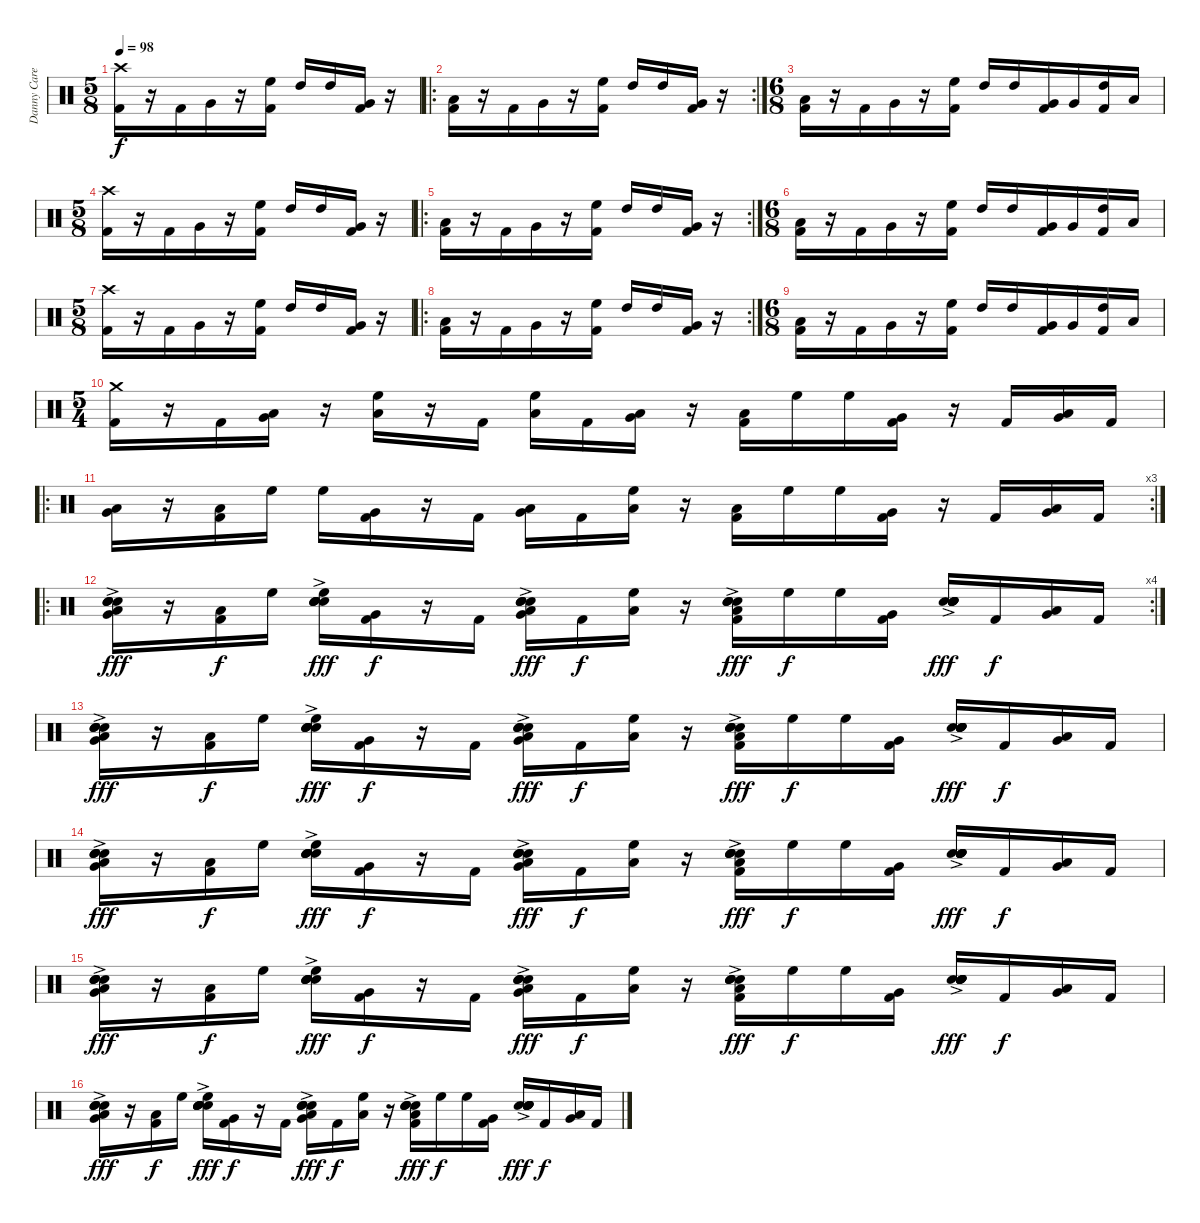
\track ("Danny Carey" "Danny Care") {instrument percussion}
\staff {score}
\articulation defaults
\ts (5 8)
\tempo 98
\clef neutral
\ks c
("Crash high (hit)" "Kick (hit) 2").16{dy f} r.16 "Kick (hit) 2".16 "Very Low Tom (hit)".16 r.16 ("High Floor Tom (hit)" "Kick (hit) 2").16 "High Tom (hit)".16 "High Tom (hit)".16 ("Very Low Tom (hit)" "Kick (hit) 2").16 r.16 |
\ro
\rc 2
("Low Floor Tom (hit)" "Kick (hit) 2").16 r.16 "Kick (hit) 2".16 "Very Low Tom (hit)".16 r.16 ("High Floor Tom (hit)" "Kick (hit) 2").16 "High Tom (hit)".16 "High Tom (hit)".16 ("Very Low Tom (hit)" "Kick (hit) 2").16 r.16 |
\ts (6 8)
("Low Floor Tom (hit)" "Kick (hit) 2").16 r.16 "Kick (hit) 2".16 "Very Low Tom (hit)".16 r.16 ("High Floor Tom (hit)" "Kick (hit) 2").16 "High Tom (hit)".16 "High Tom (hit)".16 ("Very Low Tom (hit)" "Kick (hit) 2").16 "Very Low Tom (hit)".16 ("High Tom (hit)" "Kick (hit) 2").16 "Low Floor Tom (hit)".16 |
\ts (5 8)
("Crash high (hit)" "Kick (hit) 2").16 r.16 "Kick (hit) 2".16 "Very Low Tom (hit)".16 r.16 ("High Floor Tom (hit)" "Kick (hit) 2").16 "High Tom (hit)".16 "High Tom (hit)".16 ("Very Low Tom (hit)" "Kick (hit) 2").16 r.16 |
\ro
\rc 2
("Low Floor Tom (hit)" "Kick (hit) 2").16 r.16 "Kick (hit) 2".16 "Very Low Tom (hit)".16 r.16 ("High Floor Tom (hit)" "Kick (hit) 2").16 "High Tom (hit)".16 "High Tom (hit)".16 ("Very Low Tom (hit)" "Kick (hit) 2").16 r.16 |
\ts (6 8)
("Low Floor Tom (hit)" "Kick (hit) 2").16 r.16 "Kick (hit) 2".16 "Very Low Tom (hit)".16 r.16 ("High Floor Tom (hit)" "Kick (hit) 2").16 "High Tom (hit)".16 "High Tom (hit)".16 ("Very Low Tom (hit)" "Kick (hit) 2").16 "Very Low Tom (hit)".16 ("High Tom (hit)" "Kick (hit) 2").16 "Low Floor Tom (hit)".16 |
\ts (5 8)
("Crash high (hit)" "Kick (hit) 2").16 r.16 "Kick (hit) 2".16 "Very Low Tom (hit)".16 r.16 ("High Floor Tom (hit)" "Kick (hit) 2").16 "High Tom (hit)".16 "High Tom (hit)".16 ("Very Low Tom (hit)" "Kick (hit) 2").16 r.16 |
\ro
\rc 2
("Low Floor Tom (hit)" "Kick (hit) 2").16 r.16 "Kick (hit) 2".16 "Very Low Tom (hit)".16 r.16 ("High Floor Tom (hit)" "Kick (hit) 2").16 "High Tom (hit)".16 "High Tom (hit)".16 ("Very Low Tom (hit)" "Kick (hit) 2").16 r.16 |
\ts (6 8)
("Low Floor Tom (hit)" "Kick (hit) 2").16 r.16 "Kick (hit) 2".16 "Very Low Tom (hit)".16 r.16 ("High Floor Tom (hit)" "Kick (hit) 2").16 "High Tom (hit)".16 "High Tom (hit)".16 ("Very Low Tom (hit)" "Kick (hit) 2").16 "Very Low Tom (hit)".16 ("High Tom (hit)" "Kick (hit) 2").16 "Low Floor Tom (hit)".16 |
\ts (5 4)
("Crash medium (hit)" "Kick (hit) 2").16 r.16 "Kick (hit) 2".16 ("Very Low Tom (hit)" "Low Floor Tom (hit)").16 r.16 ("High Floor Tom (hit)" "Low Floor Tom (hit)").16 r.16 "Kick (hit) 2".16 ("High Floor Tom (hit)" "Low Floor Tom (hit)").16 "Kick (hit) 2".16 ("Very Low Tom (hit)" "Low Floor Tom (hit)").16 r.16 ("Low Floor Tom (hit)" "Kick (hit) 2").16 "High Floor Tom (hit)".16 "High Floor Tom (hit)".16 ("Very Low Tom (hit)" "Kick (hit) 2").16 r.16 "Kick (hit) 2".16 ("Very Low Tom (hit)" "Low Floor Tom (hit)").16 "Kick (hit) 2".16 |
\ro
\rc 3
("Very Low Tom (hit)" "Low Floor Tom (hit)").16 r.16 ("Low Floor Tom (hit)" "Kick (hit) 2").16 "High Floor Tom (hit)".16 "High Floor Tom (hit)".16 ("Very Low Tom (hit)" "Kick (hit) 2").16 r.16 "Kick (hit) 2".16 ("Very Low Tom (hit)" "Low Floor Tom (hit)").16 "Kick (hit) 2".16 ("High Floor Tom (hit)" "Low Floor Tom (hit)").16 r.16 ("Low Floor Tom (hit)" "Kick (hit) 2").16 "High Floor Tom (hit)".16 "High Floor Tom (hit)".16 ("Very Low Tom (hit)" "Kick (hit) 2").16 r.16 "Kick (hit) 2".16 ("Very Low Tom (hit)" "Low Floor Tom (hit)").16 "Kick (hit) 2".16 |
\ro
\rc 4
("Hand Clap (hit)"{ac} "Very Low Tom (hit)" "Low Floor Tom (hit)" "Hand Clap (hit)" "Hand Clap (hit)" "Hand Clap (hit)").16{dy fff} r.16 ("Low Floor Tom (hit)" "Kick (hit) 2").16{dy f} "High Floor Tom (hit)".16 ("Hand Clap (hit)"{ac} "High Floor Tom (hit)" "Hand Clap (hit)" "Hand Clap (hit)" "Hand Clap (hit)" "Hand Clap (hit)").16{dy fff} ("Very Low Tom (hit)" "Kick (hit) 2").16{dy f} r.16 "Kick (hit) 2".16 ("Hand Clap (hit)"{ac} "Very Low Tom (hit)" "Low Floor Tom (hit)" "Hand Clap (hit)" "Hand Clap (hit)" "Hand Clap (hit)").16{dy fff} "Kick (hit) 2".16{dy f} ("High Floor Tom (hit)" "Low Floor Tom (hit)").16 r.16 ("Hand Clap (hit)"{ac} "Hand Clap (hit)" "Low Floor Tom (hit)" "Hand Clap (hit)" "Hand Clap (hit)" "Kick (hit) 2").16{dy fff} "High Floor Tom (hit)".16{dy f} "High Floor Tom (hit)".16 ("Very Low Tom (hit)" "Kick (hit) 2").16 ("Hand Clap (hit)"{ac} "Hand Clap (hit)" "Hand Clap (hit)" "Hand Clap (hit)" "Hand Clap (hit)" "Hand Clap (hit)").16{dy fff} "Kick (hit) 2".16{dy f} ("Very Low Tom (hit)" "Low Floor Tom (hit)").16 "Kick (hit) 2".16 |
("Hand Clap (hit)"{ac} "Very Low Tom (hit)" "Low Floor Tom (hit)" "Hand Clap (hit)" "Hand Clap (hit)" "Hand Clap (hit)").16{dy fff} r.16 ("Low Floor Tom (hit)" "Kick (hit) 2").16{dy f} "High Floor Tom (hit)".16 ("Hand Clap (hit)"{ac} "High Floor Tom (hit)" "Hand Clap (hit)" "Hand Clap (hit)" "Hand Clap (hit)" "Hand Clap (hit)").16{dy fff} ("Very Low Tom (hit)" "Kick (hit) 2").16{dy f} r.16 "Kick (hit) 2".16 ("Hand Clap (hit)"{ac} "Very Low Tom (hit)" "Low Floor Tom (hit)" "Hand Clap (hit)" "Hand Clap (hit)" "Hand Clap (hit)").16{dy fff} "Kick (hit) 2".16{dy f} ("High Floor Tom (hit)" "Low Floor Tom (hit)").16 r.16 ("Hand Clap (hit)"{ac} "Hand Clap (hit)" "Low Floor Tom (hit)" "Hand Clap (hit)" "Hand Clap (hit)" "Kick (hit) 2").16{dy fff} "High Floor Tom (hit)".16{dy f} "High Floor Tom (hit)".16 ("Very Low Tom (hit)" "Kick (hit) 2").16 ("Hand Clap (hit)"{ac} "Hand Clap (hit)" "Hand Clap (hit)" "Hand Clap (hit)" "Hand Clap (hit)" "Hand Clap (hit)").16{dy fff} "Kick (hit) 2".16{dy f} ("Very Low Tom (hit)" "Low Floor Tom (hit)").16 "Kick (hit) 2".16 |
("Hand Clap (hit)"{ac} "Very Low Tom (hit)" "Low Floor Tom (hit)" "Hand Clap (hit)" "Hand Clap (hit)" "Hand Clap (hit)").16{dy fff} r.16 ("Low Floor Tom (hit)" "Kick (hit) 2").16{dy f} "High Floor Tom (hit)".16 ("Hand Clap (hit)"{ac} "High Floor Tom (hit)" "Hand Clap (hit)" "Hand Clap (hit)" "Hand Clap (hit)" "Hand Clap (hit)").16{dy fff} ("Very Low Tom (hit)" "Kick (hit) 2").16{dy f} r.16 "Kick (hit) 2".16 ("Hand Clap (hit)"{ac} "Very Low Tom (hit)" "Low Floor Tom (hit)" "Hand Clap (hit)" "Hand Clap (hit)" "Hand Clap (hit)").16{dy fff} "Kick (hit) 2".16{dy f} ("High Floor Tom (hit)" "Low Floor Tom (hit)").16 r.16 ("Hand Clap (hit)"{ac} "Hand Clap (hit)" "Low Floor Tom (hit)" "Hand Clap (hit)" "Hand Clap (hit)" "Kick (hit) 2").16{dy fff} "High Floor Tom (hit)".16{dy f} "High Floor Tom (hit)".16 ("Very Low Tom (hit)" "Kick (hit) 2").16 ("Hand Clap (hit)"{ac} "Hand Clap (hit)" "Hand Clap (hit)" "Hand Clap (hit)" "Hand Clap (hit)" "Hand Clap (hit)").16{dy fff} "Kick (hit) 2".16{dy f} ("Very Low Tom (hit)" "Low Floor Tom (hit)").16 "Kick (hit) 2".16 |
("Hand Clap (hit)"{ac} "Very Low Tom (hit)" "Low Floor Tom (hit)" "Hand Clap (hit)" "Hand Clap (hit)" "Hand Clap (hit)").16{dy fff} r.16 ("Low Floor Tom (hit)" "Kick (hit) 2").16{dy f} "High Floor Tom (hit)".16 ("Hand Clap (hit)"{ac} "High Floor Tom (hit)" "Hand Clap (hit)" "Hand Clap (hit)" "Hand Clap (hit)" "Hand Clap (hit)").16{dy fff} ("Very Low Tom (hit)" "Kick (hit) 2").16{dy f} r.16 "Kick (hit) 2".16 ("Hand Clap (hit)"{ac} "Very Low Tom (hit)" "Low Floor Tom (hit)" "Hand Clap (hit)" "Hand Clap (hit)" "Hand Clap (hit)").16{dy fff} "Kick (hit) 2".16{dy f} ("High Floor Tom (hit)" "Low Floor Tom (hit)").16 r.16 ("Hand Clap (hit)"{ac} "Hand Clap (hit)" "Low Floor Tom (hit)" "Hand Clap (hit)" "Hand Clap (hit)" "Kick (hit) 2").16{dy fff} "High Floor Tom (hit)".16{dy f} "High Floor Tom (hit)".16 ("Very Low Tom (hit)" "Kick (hit) 2").16 ("Hand Clap (hit)"{ac} "Hand Clap (hit)" "Hand Clap (hit)" "Hand Clap (hit)" "Hand Clap (hit)" "Hand Clap (hit)").16{dy fff} "Kick (hit) 2".16{dy f} ("Very Low Tom (hit)" "Low Floor Tom (hit)").16 "Kick (hit) 2".16 |
("Hand Clap (hit)"{ac} "Very Low Tom (hit)" "Low Floor Tom (hit)" "Hand Clap (hit)" "Hand Clap (hit)" "Hand Clap (hit)").16{dy fff} r.16 ("Low Floor Tom (hit)" "Kick (hit) 2").16{dy f} "High Floor Tom (hit)".16 ("Hand Clap (hit)"{ac} "High Floor Tom (hit)" "Hand Clap (hit)" "Hand Clap (hit)" "Hand Clap (hit)" "Hand Clap (hit)").16{dy fff} ("Very Low Tom (hit)" "Kick (hit) 2").16{dy f} r.16 "Kick (hit) 2".16 ("Hand Clap (hit)"{ac} "Very Low Tom (hit)" "Low Floor Tom (hit)" "Hand Clap (hit)" "Hand Clap (hit)" "Hand Clap (hit)").16{dy fff} "Kick (hit) 2".16{dy f} ("High Floor Tom (hit)" "Low Floor Tom (hit)").16 r.16 ("Hand Clap (hit)"{ac} "Hand Clap (hit)" "Low Floor Tom (hit)" "Hand Clap (hit)" "Hand Clap (hit)" "Kick (hit) 2").16{dy fff} "High Floor Tom (hit)".16{dy f} "High Floor Tom (hit)".16 ("Very Low Tom (hit)" "Kick (hit) 2").16 ("Hand Clap (hit)"{ac} "Hand Clap (hit)" "Hand Clap (hit)" "Hand Clap (hit)" "Hand Clap (hit)" "Hand Clap (hit)").16{dy fff} "Kick (hit) 2".16{dy f} ("Very Low Tom (hit)" "Low Floor Tom (hit)").16 "Kick (hit) 2".16
